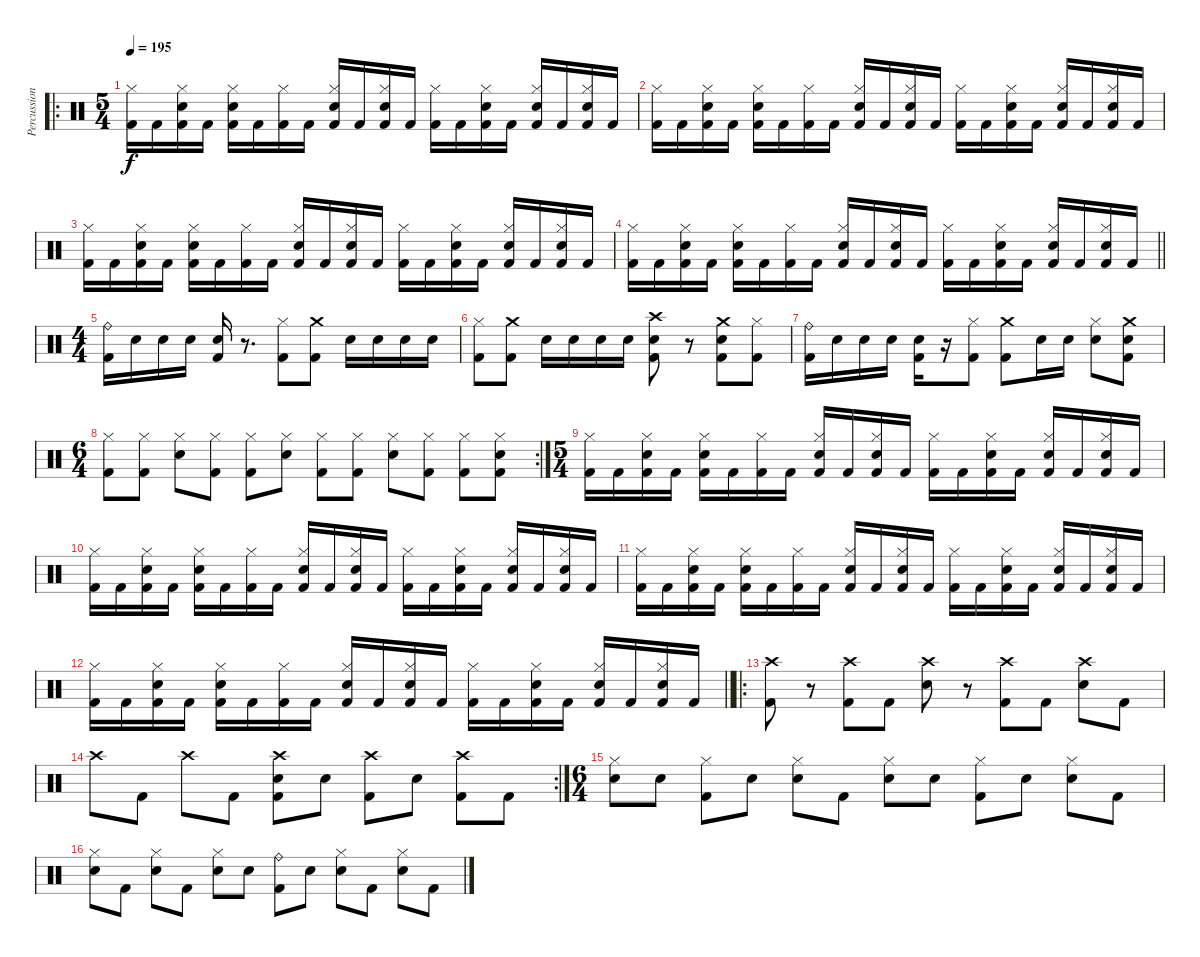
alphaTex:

\track ("Percussion" "Percussion") {instrument percussion}
\staff {score}
\articulation defaults
\ro
\ts (5 4)
\tempo 195
\clef neutral
\ks c
("Kick (hit) 2" "Hi-Hat (closed)").16{dy f} "Kick (hit) 2".16 ("Kick (hit) 2" "Hi-Hat (closed)" "Electric Snare (hit)").16 "Kick (hit) 2".16 ("Kick (hit) 2" "Hi-Hat (closed)" "Electric Snare (hit)").16 "Kick (hit) 2".16 ("Kick (hit) 2" "Hi-Hat (closed)").16 "Kick (hit) 2".16 ("Kick (hit) 2" "Hi-Hat (closed)" "Electric Snare (hit)").16 "Kick (hit) 2".16 ("Kick (hit) 2" "Hi-Hat (closed)" "Electric Snare (hit)").16 "Kick (hit) 2".16 ("Kick (hit) 2" "Hi-Hat (closed)").16 "Kick (hit) 2".16 ("Kick (hit) 2" "Hi-Hat (closed)" "Electric Snare (hit)").16 "Kick (hit) 2".16 ("Kick (hit) 2" "Hi-Hat (closed)" "Electric Snare (hit)").16 "Kick (hit) 2".16 ("Kick (hit) 2" "Hi-Hat (closed)" "Electric Snare (hit)").16 "Kick (hit) 2".16 |
("Kick (hit) 2" "Hi-Hat (closed)").16 "Kick (hit) 2".16 ("Kick (hit) 2" "Hi-Hat (closed)" "Electric Snare (hit)").16 "Kick (hit) 2".16 ("Kick (hit) 2" "Hi-Hat (closed)" "Electric Snare (hit)").16 "Kick (hit) 2".16 ("Kick (hit) 2" "Hi-Hat (closed)").16 "Kick (hit) 2".16 ("Kick (hit) 2" "Hi-Hat (closed)" "Electric Snare (hit)").16 "Kick (hit) 2".16 ("Kick (hit) 2" "Hi-Hat (closed)" "Electric Snare (hit)").16 "Kick (hit) 2".16 ("Kick (hit) 2" "Hi-Hat (closed)").16 "Kick (hit) 2".16 ("Kick (hit) 2" "Hi-Hat (closed)" "Electric Snare (hit)").16 "Kick (hit) 2".16 ("Kick (hit) 2" "Hi-Hat (closed)" "Electric Snare (hit)").16 "Kick (hit) 2".16 ("Kick (hit) 2" "Hi-Hat (closed)" "Electric Snare (hit)").16 "Kick (hit) 2".16 |
("Kick (hit) 2" "Hi-Hat (closed)").16 "Kick (hit) 2".16 ("Kick (hit) 2" "Hi-Hat (closed)" "Electric Snare (hit)").16 "Kick (hit) 2".16 ("Kick (hit) 2" "Hi-Hat (closed)" "Electric Snare (hit)").16 "Kick (hit) 2".16 ("Kick (hit) 2" "Hi-Hat (closed)").16 "Kick (hit) 2".16 ("Kick (hit) 2" "Hi-Hat (closed)" "Electric Snare (hit)").16 "Kick (hit) 2".16 ("Kick (hit) 2" "Hi-Hat (closed)" "Electric Snare (hit)").16 "Kick (hit) 2".16 ("Kick (hit) 2" "Hi-Hat (closed)").16 "Kick (hit) 2".16 ("Kick (hit) 2" "Hi-Hat (closed)" "Electric Snare (hit)").16 "Kick (hit) 2".16 ("Kick (hit) 2" "Hi-Hat (closed)" "Electric Snare (hit)").16 "Kick (hit) 2".16 ("Kick (hit) 2" "Hi-Hat (closed)" "Electric Snare (hit)").16 "Kick (hit) 2".16 |
\barLineRight lightlight
("Kick (hit) 2" "Hi-Hat (closed)").16 "Kick (hit) 2".16 ("Kick (hit) 2" "Hi-Hat (closed)" "Electric Snare (hit)").16 "Kick (hit) 2".16 ("Kick (hit) 2" "Hi-Hat (closed)" "Electric Snare (hit)").16 "Kick (hit) 2".16 ("Kick (hit) 2" "Hi-Hat (closed)").16 "Kick (hit) 2".16 ("Kick (hit) 2" "Hi-Hat (closed)" "Electric Snare (hit)").16 "Kick (hit) 2".16 ("Kick (hit) 2" "Hi-Hat (closed)" "Electric Snare (hit)").16 "Kick (hit) 2".16 ("Kick (hit) 2" "Hi-Hat (closed)").16 "Kick (hit) 2".16 ("Kick (hit) 2" "Hi-Hat (closed)" "Electric Snare (hit)").16 "Kick (hit) 2".16 ("Kick (hit) 2" "Hi-Hat (closed)" "Electric Snare (hit)").16 "Kick (hit) 2".16 ("Kick (hit) 2" "Hi-Hat (closed)" "Electric Snare (hit)").16 "Kick (hit) 2".16 |
\ts (4 4)
("Kick (hit) 2" "Ride (bell)").16 "Electric Snare (hit)".16 "Electric Snare (hit)".16 "Electric Snare (hit)".16 ("Kick (hit) 2" "Electric Snare (hit)").16 r.8{d} ("Kick (hit) 2" "Hi-Hat (closed)").8 ("Kick (hit) 2" "Crash medium (hit)").8 "Electric Snare (hit)".16 "Electric Snare (hit)".16 "Electric Snare (hit)".16 "Electric Snare (hit)".16 |
("Kick (hit) 2" "Hi-Hat (closed)").8 ("Kick (hit) 2" "Crash medium (hit)").8 "Electric Snare (hit)".16 "Electric Snare (hit)".16 "Electric Snare (hit)".16 "Electric Snare (hit)".16 ("Kick (hit) 2" "Crash high (hit)" "Electric Snare (hit)").8 r.8 ("Kick (hit) 2" "Crash medium (hit)" "Electric Snare (hit)").8 ("Kick (hit) 2" "Hi-Hat (closed)").8 |
("Kick (hit) 2" "Ride (bell)").16 "Electric Snare (hit)".16 "Electric Snare (hit)".16 "Electric Snare (hit)".16 ("Kick (hit) 2" "Electric Snare (hit)").16 r.16 ("Kick (hit) 2" "Hi-Hat (closed)").8 ("Kick (hit) 2" "Crash medium (hit)").8 "Electric Snare (hit)".16 "Electric Snare (hit)".16 ("Hi-Hat (closed)" "Electric Snare (hit)").8 ("Kick (hit) 2" "Crash medium (hit)" "Electric Snare (hit)").8 |
\rc 2
\ts (6 4)
("Kick (hit) 2" "Hi-Hat (closed)").8 ("Kick (hit) 2" "Hi-Hat (closed)").8 ("Hi-Hat (closed)" "Electric Snare (hit)").8 ("Kick (hit) 2" "Hi-Hat (closed)").8 ("Kick (hit) 2" "Hi-Hat (closed)").8 ("Hi-Hat (closed)" "Electric Snare (hit)").8 ("Kick (hit) 2" "Hi-Hat (closed)").8 ("Kick (hit) 2" "Hi-Hat (closed)").8 ("Hi-Hat (closed)" "Electric Snare (hit)").8 ("Kick (hit) 2" "Hi-Hat (closed)").8 ("Kick (hit) 2" "Hi-Hat (closed)").8 ("Kick (hit) 2" "Hi-Hat (closed)" "Electric Snare (hit)").8 |
\ts (5 4)
("Kick (hit) 2" "Hi-Hat (closed)").16 "Kick (hit) 2".16 ("Kick (hit) 2" "Hi-Hat (closed)" "Electric Snare (hit)").16 "Kick (hit) 2".16 ("Kick (hit) 2" "Hi-Hat (closed)" "Electric Snare (hit)").16 "Kick (hit) 2".16 ("Kick (hit) 2" "Hi-Hat (closed)").16 "Kick (hit) 2".16 ("Kick (hit) 2" "Hi-Hat (closed)" "Electric Snare (hit)").16 "Kick (hit) 2".16 ("Kick (hit) 2" "Hi-Hat (closed)" "Electric Snare (hit)").16 "Kick (hit) 2".16 ("Kick (hit) 2" "Hi-Hat (closed)").16 "Kick (hit) 2".16 ("Kick (hit) 2" "Hi-Hat (closed)" "Electric Snare (hit)").16 "Kick (hit) 2".16 ("Kick (hit) 2" "Hi-Hat (closed)" "Electric Snare (hit)").16 "Kick (hit) 2".16 ("Kick (hit) 2" "Hi-Hat (closed)" "Electric Snare (hit)").16 "Kick (hit) 2".16 |
("Kick (hit) 2" "Hi-Hat (closed)").16 "Kick (hit) 2".16 ("Kick (hit) 2" "Hi-Hat (closed)" "Electric Snare (hit)").16 "Kick (hit) 2".16 ("Kick (hit) 2" "Hi-Hat (closed)" "Electric Snare (hit)").16 "Kick (hit) 2".16 ("Kick (hit) 2" "Hi-Hat (closed)").16 "Kick (hit) 2".16 ("Kick (hit) 2" "Hi-Hat (closed)" "Electric Snare (hit)").16 "Kick (hit) 2".16 ("Kick (hit) 2" "Hi-Hat (closed)" "Electric Snare (hit)").16 "Kick (hit) 2".16 ("Kick (hit) 2" "Hi-Hat (closed)").16 "Kick (hit) 2".16 ("Kick (hit) 2" "Hi-Hat (closed)" "Electric Snare (hit)").16 "Kick (hit) 2".16 ("Kick (hit) 2" "Hi-Hat (closed)" "Electric Snare (hit)").16 "Kick (hit) 2".16 ("Kick (hit) 2" "Hi-Hat (closed)" "Electric Snare (hit)").16 "Kick (hit) 2".16 |
("Kick (hit) 2" "Hi-Hat (closed)").16 "Kick (hit) 2".16 ("Kick (hit) 2" "Hi-Hat (closed)" "Electric Snare (hit)").16 "Kick (hit) 2".16 ("Kick (hit) 2" "Hi-Hat (closed)" "Electric Snare (hit)").16 "Kick (hit) 2".16 ("Kick (hit) 2" "Hi-Hat (closed)").16 "Kick (hit) 2".16 ("Kick (hit) 2" "Hi-Hat (closed)" "Electric Snare (hit)").16 "Kick (hit) 2".16 ("Kick (hit) 2" "Hi-Hat (closed)" "Electric Snare (hit)").16 "Kick (hit) 2".16 ("Kick (hit) 2" "Hi-Hat (closed)").16 "Kick (hit) 2".16 ("Kick (hit) 2" "Hi-Hat (closed)" "Electric Snare (hit)").16 "Kick (hit) 2".16 ("Kick (hit) 2" "Hi-Hat (closed)" "Electric Snare (hit)").16 "Kick (hit) 2".16 ("Kick (hit) 2" "Hi-Hat (closed)" "Electric Snare (hit)").16 "Kick (hit) 2".16 |
\barLineRight lightlight
("Kick (hit) 2" "Hi-Hat (closed)").16 "Kick (hit) 2".16 ("Kick (hit) 2" "Hi-Hat (closed)" "Electric Snare (hit)").16 "Kick (hit) 2".16 ("Kick (hit) 2" "Hi-Hat (closed)" "Electric Snare (hit)").16 "Kick (hit) 2".16 ("Kick (hit) 2" "Hi-Hat (closed)").16 "Kick (hit) 2".16 ("Kick (hit) 2" "Hi-Hat (closed)" "Electric Snare (hit)").16 "Kick (hit) 2".16 ("Kick (hit) 2" "Hi-Hat (closed)" "Electric Snare (hit)").16 "Kick (hit) 2".16 ("Kick (hit) 2" "Hi-Hat (closed)").16 "Kick (hit) 2".16 ("Kick (hit) 2" "Hi-Hat (closed)" "Electric Snare (hit)").16 "Kick (hit) 2".16 ("Kick (hit) 2" "Hi-Hat (closed)" "Electric Snare (hit)").16 "Kick (hit) 2".16 ("Kick (hit) 2" "Hi-Hat (closed)" "Electric Snare (hit)").16 "Kick (hit) 2".16 |
\ro
("Kick (hit) 2" "Crash high (hit)").8 r.8 ("Kick (hit) 2" "Crash high (hit)").8 "Kick (hit) 2".8 ("Crash high (hit)" "Electric Snare (hit)").8 r.8 ("Kick (hit) 2" "Crash high (hit)").8 "Kick (hit) 2".8 ("Crash high (hit)" "Electric Snare (hit)").8 "Kick (hit) 2".8 |
\rc 2 "Crash high (hit)".8 "Kick (hit) 2".8 "Crash high (hit)".8 "Kick (hit) 2".8
("Kick (hit) 2" "Crash high (hit)" "Electric Snare (hit)").8 "Electric Snare (hit)".8 ("Kick (hit) 2" "Crash high (hit)").8 "Electric Snare (hit)".8 ("Kick (hit) 2" "Crash high (hit)").8 "Kick (hit) 2".8 |
\ts (6 4)
("Hi-Hat (closed)" "Electric Snare (hit)").8 "Electric Snare (hit)".8 ("Kick (hit) 2" "Hi-Hat (closed)").8 "Electric Snare (hit)".8 ("Hi-Hat (closed)" "Electric Snare (hit)").8 "Kick (hit) 2".8 ("Hi-Hat (closed)" "Electric Snare (hit)").8 "Electric Snare (hit)".8 ("Kick (hit) 2" "Hi-Hat (closed)").8 "Electric Snare (hit)".8 ("Hi-Hat (closed)" "Electric Snare (hit)").8 "Kick (hit) 2".8 |
("Hi-Hat (closed)" "Electric Snare (hit)").8 "Kick (hit) 2".8 ("Hi-Hat (closed)" "Electric Snare (hit)").8 "Kick (hit) 2".8 ("Hi-Hat (closed)" "Electric Snare (hit)").8 "Electric Snare (hit)".8 ("Kick (hit) 2" "Ride (bell)").8 "Electric Snare (hit)".8 ("Hi-Hat (closed)" "Electric Snare (hit)").8 "Kick (hit) 2".8 ("Hi-Hat (closed)" "Electric Snare (hit)").8 "Kick (hit) 2".8
